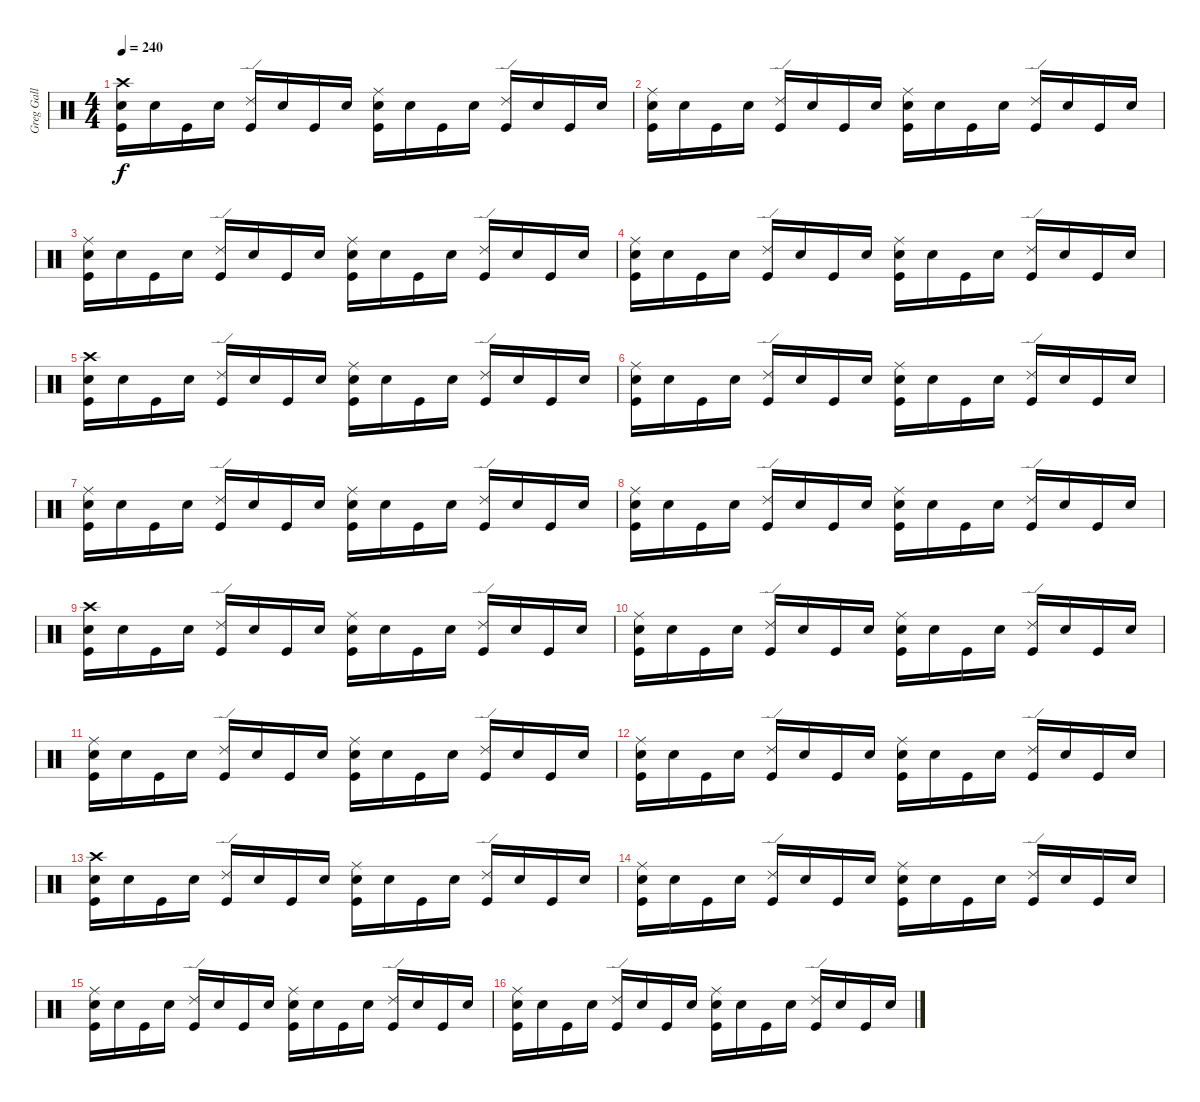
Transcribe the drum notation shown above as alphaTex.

\track ("Greg Gall - Drums" "Greg Gall ") {instrument percussion}
\staff {score}
\articulation defaults
\ts (4 4)
\tempo 240
\clef neutral
\ks c
("Crash high (hit)" "Electric Snare (hit)" "Kick (hit)").16{dy f} "Snare (hit)".16 "Kick (hit)".16 "Snare (hit)".16 ("Ride (edge) 2" "Kick (hit)").16 "Snare (hit)".16 "Kick (hit)".16 "Snare (hit)".16 ("Ride (middle)" "Electric Snare (hit)" "Kick (hit)").16 "Snare (hit)".16 "Kick (hit)".16 "Snare (hit)".16 ("Ride (edge) 2" "Kick (hit)").16 "Snare (hit)".16 "Kick (hit)".16 "Snare (hit)".16 |
("Ride (middle)" "Electric Snare (hit)" "Kick (hit)").16 "Snare (hit)".16 "Kick (hit)".16 "Snare (hit)".16 ("Ride (edge) 2" "Kick (hit)").16 "Snare (hit)".16 "Kick (hit)".16 "Snare (hit)".16 ("Ride (middle)" "Electric Snare (hit)" "Kick (hit)").16 "Snare (hit)".16 "Kick (hit)".16 "Snare (hit)".16 ("Ride (edge) 2" "Kick (hit)").16 "Snare (hit)".16 "Kick (hit)".16 "Snare (hit)".16 |
("Ride (middle)" "Electric Snare (hit)" "Kick (hit)").16 "Snare (hit)".16 "Kick (hit)".16 "Snare (hit)".16 ("Ride (edge) 2" "Kick (hit)").16 "Snare (hit)".16 "Kick (hit)".16 "Snare (hit)".16 ("Ride (middle)" "Electric Snare (hit)" "Kick (hit)").16 "Snare (hit)".16 "Kick (hit)".16 "Snare (hit)".16 ("Ride (edge) 2" "Kick (hit)").16 "Snare (hit)".16 "Kick (hit)".16 "Snare (hit)".16 |
("Ride (middle)" "Electric Snare (hit)" "Kick (hit)").16 "Snare (hit)".16 "Kick (hit)".16 "Snare (hit)".16 ("Ride (edge) 2" "Kick (hit)").16 "Snare (hit)".16 "Kick (hit)".16 "Snare (hit)".16 ("Ride (middle)" "Electric Snare (hit)" "Kick (hit)").16 "Snare (hit)".16 "Kick (hit)".16 "Snare (hit)".16 ("Ride (edge) 2" "Kick (hit)").16 "Snare (hit)".16 "Kick (hit)".16 "Snare (hit)".16 |
("Crash high (hit)" "Electric Snare (hit)" "Kick (hit)").16 "Snare (hit)".16 "Kick (hit)".16 "Snare (hit)".16 ("Ride (edge) 2" "Kick (hit)").16 "Snare (hit)".16 "Kick (hit)".16 "Snare (hit)".16 ("Ride (middle)" "Electric Snare (hit)" "Kick (hit)").16 "Snare (hit)".16 "Kick (hit)".16 "Snare (hit)".16 ("Ride (edge) 2" "Kick (hit)").16 "Snare (hit)".16 "Kick (hit)".16 "Snare (hit)".16 |
("Ride (middle)" "Electric Snare (hit)" "Kick (hit)").16 "Snare (hit)".16 "Kick (hit)".16 "Snare (hit)".16 ("Ride (edge) 2" "Kick (hit)").16 "Snare (hit)".16 "Kick (hit)".16 "Snare (hit)".16 ("Ride (middle)" "Electric Snare (hit)" "Kick (hit)").16 "Snare (hit)".16 "Kick (hit)".16 "Snare (hit)".16 ("Ride (edge) 2" "Kick (hit)").16 "Snare (hit)".16 "Kick (hit)".16 "Snare (hit)".16 |
("Ride (middle)" "Electric Snare (hit)" "Kick (hit)").16 "Snare (hit)".16 "Kick (hit)".16 "Snare (hit)".16 ("Ride (edge) 2" "Kick (hit)").16 "Snare (hit)".16 "Kick (hit)".16 "Snare (hit)".16 ("Ride (middle)" "Electric Snare (hit)" "Kick (hit)").16 "Snare (hit)".16 "Kick (hit)".16 "Snare (hit)".16 ("Ride (edge) 2" "Kick (hit)").16 "Snare (hit)".16 "Kick (hit)".16 "Snare (hit)".16 |
("Ride (middle)" "Electric Snare (hit)" "Kick (hit)").16 "Snare (hit)".16 "Kick (hit)".16 "Snare (hit)".16 ("Ride (edge) 2" "Kick (hit)").16 "Snare (hit)".16 "Kick (hit)".16 "Snare (hit)".16 ("Ride (middle)" "Electric Snare (hit)" "Kick (hit)").16 "Snare (hit)".16 "Kick (hit)".16 "Snare (hit)".16 ("Ride (edge) 2" "Kick (hit)").16 "Snare (hit)".16 "Kick (hit)".16 "Snare (hit)".16 |
("Crash high (hit)" "Electric Snare (hit)" "Kick (hit)").16 "Snare (hit)".16 "Kick (hit)".16 "Snare (hit)".16 ("Ride (edge) 2" "Kick (hit)").16 "Snare (hit)".16 "Kick (hit)".16 "Snare (hit)".16 ("Ride (middle)" "Electric Snare (hit)" "Kick (hit)").16 "Snare (hit)".16 "Kick (hit)".16 "Snare (hit)".16 ("Ride (edge) 2" "Kick (hit)").16 "Snare (hit)".16 "Kick (hit)".16 "Snare (hit)".16 |
("Ride (middle)" "Electric Snare (hit)" "Kick (hit)").16 "Snare (hit)".16 "Kick (hit)".16 "Snare (hit)".16 ("Ride (edge) 2" "Kick (hit)").16 "Snare (hit)".16 "Kick (hit)".16 "Snare (hit)".16 ("Ride (middle)" "Electric Snare (hit)" "Kick (hit)").16 "Snare (hit)".16 "Kick (hit)".16 "Snare (hit)".16 ("Ride (edge) 2" "Kick (hit)").16 "Snare (hit)".16 "Kick (hit)".16 "Snare (hit)".16 |
("Ride (middle)" "Electric Snare (hit)" "Kick (hit)").16 "Snare (hit)".16 "Kick (hit)".16 "Snare (hit)".16 ("Ride (edge) 2" "Kick (hit)").16 "Snare (hit)".16 "Kick (hit)".16 "Snare (hit)".16 ("Ride (middle)" "Electric Snare (hit)" "Kick (hit)").16 "Snare (hit)".16 "Kick (hit)".16 "Snare (hit)".16 ("Ride (edge) 2" "Kick (hit)").16 "Snare (hit)".16 "Kick (hit)".16 "Snare (hit)".16 |
("Ride (middle)" "Electric Snare (hit)" "Kick (hit)").16 "Snare (hit)".16 "Kick (hit)".16 "Snare (hit)".16 ("Ride (edge) 2" "Kick (hit)").16 "Snare (hit)".16 "Kick (hit)".16 "Snare (hit)".16 ("Ride (middle)" "Electric Snare (hit)" "Kick (hit)").16 "Snare (hit)".16 "Kick (hit)".16 "Snare (hit)".16 ("Ride (edge) 2" "Kick (hit)").16 "Snare (hit)".16 "Kick (hit)".16 "Snare (hit)".16 |
("Crash high (hit)" "Electric Snare (hit)" "Kick (hit)").16{volume 16 balance 8} "Snare (hit)".16 "Kick (hit)".16 "Snare (hit)".16 ("Ride (edge) 2" "Kick (hit)").16 "Snare (hit)".16 "Kick (hit)".16 "Snare (hit)".16 ("Ride (middle)" "Electric Snare (hit)" "Kick (hit)").16 "Snare (hit)".16 "Kick (hit)".16 "Snare (hit)".16 ("Ride (edge) 2" "Kick (hit)").16 "Snare (hit)".16 "Kick (hit)".16 "Snare (hit)".16 |
("Ride (middle)" "Electric Snare (hit)" "Kick (hit)").16 "Snare (hit)".16 "Kick (hit)".16 "Snare (hit)".16 ("Ride (edge) 2" "Kick (hit)").16 "Snare (hit)".16 "Kick (hit)".16 "Snare (hit)".16 ("Ride (middle)" "Electric Snare (hit)" "Kick (hit)").16 "Snare (hit)".16 "Kick (hit)".16 "Snare (hit)".16 ("Ride (edge) 2" "Kick (hit)").16 "Snare (hit)".16 "Kick (hit)".16 "Snare (hit)".16 |
("Ride (middle)" "Electric Snare (hit)" "Kick (hit)").16 "Snare (hit)".16 "Kick (hit)".16 "Snare (hit)".16 ("Ride (edge) 2" "Kick (hit)").16 "Snare (hit)".16 "Kick (hit)".16 "Snare (hit)".16 ("Ride (middle)" "Electric Snare (hit)" "Kick (hit)").16 "Snare (hit)".16 "Kick (hit)".16 "Snare (hit)".16 ("Ride (edge) 2" "Kick (hit)").16 "Snare (hit)".16 "Kick (hit)".16 "Snare (hit)".16 |
("Ride (middle)" "Electric Snare (hit)" "Kick (hit)").16 "Snare (hit)".16 "Kick (hit)".16 "Snare (hit)".16 ("Ride (edge) 2" "Kick (hit)").16 "Snare (hit)".16 "Kick (hit)".16 "Snare (hit)".16 ("Ride (middle)" "Electric Snare (hit)" "Kick (hit)").16 "Snare (hit)".16 "Kick (hit)".16 "Snare (hit)".16 ("Ride (edge) 2" "Kick (hit)").16 "Snare (hit)".16 "Kick (hit)".16 "Snare (hit)".16
